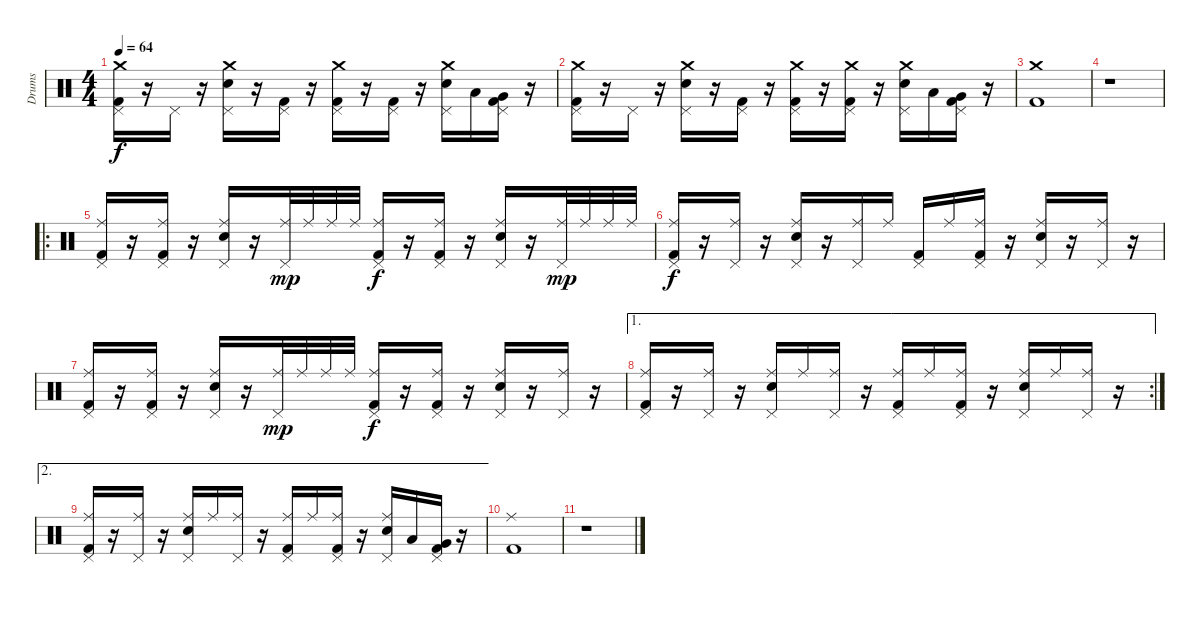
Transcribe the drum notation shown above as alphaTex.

\track ("Drums" "Drums") {instrument percussion}
\staff {score}
\articulation defaults
\ts (4 4)
\tempo 64
\clef neutral
\ks c
("Crash medium (hit)" "Pedal Hi-Hat (hit)" "Kick (hit) 2").16{dy f} r.16 "Pedal Hi-Hat (hit)".16 r.16 ("Crash medium (hit)" "Pedal Hi-Hat (hit)" "Snare (hit) 2").16 r.16 ("Pedal Hi-Hat (hit)" "Kick (hit) 2").16 r.16 ("Crash medium (hit)" "Pedal Hi-Hat (hit)" "Kick (hit) 2").16 r.16 ("Pedal Hi-Hat (hit)" "Kick (hit) 2").16 r.16 ("Crash medium (hit)" "Pedal Hi-Hat (hit)" "Snare (hit) 2").16 "Low Tom (hit)".16 ("Pedal Hi-Hat (hit)" "Very Low Tom (hit)" "Kick (hit) 2").16 r.16 |
("Crash medium (hit)" "Pedal Hi-Hat (hit)" "Kick (hit) 2").16 r.16 "Pedal Hi-Hat (hit)".16 r.16 ("Crash medium (hit)" "Pedal Hi-Hat (hit)" "Snare (hit) 2").16 r.16 ("Pedal Hi-Hat (hit)" "Kick (hit) 2").16 r.16 ("Crash medium (hit)" "Pedal Hi-Hat (hit)" "Kick (hit) 2").16 r.16 ("Crash medium (hit)" "Pedal Hi-Hat (hit)" "Kick (hit) 2").16 r.16 ("Crash medium (hit)" "Pedal Hi-Hat (hit)" "Snare (hit) 2").16 "Low Tom (hit)".16 ("Pedal Hi-Hat (hit)" "Very Low Tom (hit)" "Kick (hit) 2").16 r.16 |
("Crash medium (hit)" "Kick (hit) 2").1 |
r.1 |
\ro
("Ride (middle)" "Pedal Hi-Hat (hit)" "Kick (hit) 2").16{volume 7} r.16 ("Ride (middle)" "Pedal Hi-Hat (hit)" "Kick (hit) 2").16 r.16 ("Ride (middle)" "Pedal Hi-Hat (hit)" "Snare (hit) 2").16 r.16 ("Ride (middle)" "Pedal Hi-Hat (hit)").32{dy mp} "Ride (middle)".32 "Ride (middle)".32 "Ride (middle)".32 ("Ride (middle)" "Pedal Hi-Hat (hit)" "Kick (hit) 2").16{dy f} r.16 ("Ride (middle)" "Pedal Hi-Hat (hit)" "Kick (hit) 2").16 r.16 ("Ride (middle)" "Pedal Hi-Hat (hit)" "Snare (hit) 2").16 r.16 ("Ride (middle)" "Pedal Hi-Hat (hit)").32{dy mp} "Ride (middle)".32 "Ride (middle)".32 "Ride (middle)".32 |
("Ride (middle)" "Pedal Hi-Hat (hit)" "Kick (hit) 2").16{dy f} r.16 ("Ride (middle)" "Pedal Hi-Hat (hit)").16 r.16 ("Ride (middle)" "Pedal Hi-Hat (hit)" "Snare (hit) 2").16 r.16 ("Ride (middle)" "Pedal Hi-Hat (hit)").16 "Ride (middle)".16 ("Pedal Hi-Hat (hit)" "Kick (hit) 2").16 "Ride (middle)".16 ("Ride (middle)" "Pedal Hi-Hat (hit)" "Kick (hit) 2").16 r.16 ("Ride (middle)" "Pedal Hi-Hat (hit)" "Snare (hit) 2").16 r.16 ("Ride (middle)" "Pedal Hi-Hat (hit)").16 r.16 |
("Ride (middle)" "Pedal Hi-Hat (hit)" "Kick (hit) 2").16 r.16 ("Ride (middle)" "Pedal Hi-Hat (hit)" "Kick (hit) 2").16 r.16 ("Ride (middle)" "Pedal Hi-Hat (hit)" "Snare (hit) 2").16 r.16 ("Ride (middle)" "Pedal Hi-Hat (hit)").32{dy mp} "Ride (middle)".32 "Ride (middle)".32 "Ride (middle)".32 ("Ride (middle)" "Pedal Hi-Hat (hit)" "Kick (hit) 2").16{dy f} r.16 ("Ride (middle)" "Pedal Hi-Hat (hit)" "Kick (hit) 2").16 r.16 ("Ride (middle)" "Pedal Hi-Hat (hit)" "Snare (hit) 2").16 r.16 ("Ride (middle)" "Pedal Hi-Hat (hit)").16 r.16 |
\ae 1
\rc 2
("Ride (middle)" "Pedal Hi-Hat (hit)" "Kick (hit) 2").16 r.16 ("Ride (middle)" "Pedal Hi-Hat (hit)").16 r.16 ("Ride (middle)" "Pedal Hi-Hat (hit)" "Snare (hit) 2").16 "Ride (middle)".16 ("Ride (middle)" "Pedal Hi-Hat (hit)").16 r.16 ("Ride (middle)" "Pedal Hi-Hat (hit)" "Kick (hit) 2").16 "Ride (middle)".16 ("Ride (middle)" "Pedal Hi-Hat (hit)" "Kick (hit) 2").16 r.16 ("Ride (middle)" "Pedal Hi-Hat (hit)" "Snare (hit) 2").16 "Ride (middle)".16 ("Ride (middle)" "Pedal Hi-Hat (hit)").16 r.16 |
\ae 2
("Ride (middle)" "Pedal Hi-Hat (hit)" "Kick (hit) 2").16 r.16 ("Ride (middle)" "Pedal Hi-Hat (hit)").16 r.16 ("Ride (middle)" "Pedal Hi-Hat (hit)" "Snare (hit) 2").16 "Ride (middle)".16 ("Ride (middle)" "Pedal Hi-Hat (hit)").16 r.16 ("Ride (middle)" "Pedal Hi-Hat (hit)" "Kick (hit) 2").16 "Ride (middle)".16 ("Ride (middle)" "Pedal Hi-Hat (hit)" "Kick (hit) 2").16 r.16 ("Ride (middle)" "Pedal Hi-Hat (hit)" "Snare (hit) 2").16 "Low Tom (hit)".16 ("Pedal Hi-Hat (hit)" "Very Low Tom (hit)" "Kick (hit) 2").16 r.16 |
("Ride (middle)" "Kick (hit) 2").1 |
r.1
